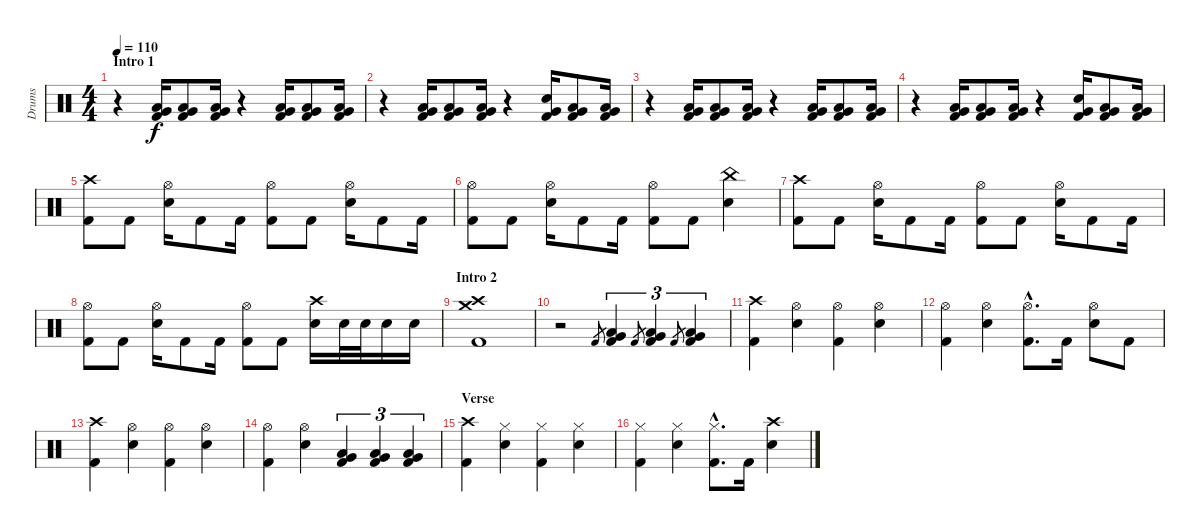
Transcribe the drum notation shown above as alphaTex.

\track ("Drums" "Drums") {instrument percussion}
\staff {score}
\articulation defaults
\ts (4 4)
\section ("" "Intro 1")
\tempo 110
\clef neutral
\ks c
r.4{dy f} ("Low Floor Tom (hit)" "Very Low Tom (hit)" "Kick (hit) 2").16 ("Low Floor Tom (hit)" "Very Low Tom (hit)" "Kick (hit) 2").8 ("Low Floor Tom (hit)" "Very Low Tom (hit)" "Kick (hit) 2").16 r.4 ("Low Floor Tom (hit)" "Very Low Tom (hit)" "Kick (hit) 2").16 ("Low Floor Tom (hit)" "Very Low Tom (hit)" "Kick (hit) 2").8 ("Low Floor Tom (hit)" "Very Low Tom (hit)" "Kick (hit) 2").16 |
r.4 ("Low Floor Tom (hit)" "Very Low Tom (hit)" "Kick (hit) 2").16 ("Low Floor Tom (hit)" "Very Low Tom (hit)" "Kick (hit) 2").8 ("Low Floor Tom (hit)" "Very Low Tom (hit)" "Kick (hit) 2").16 r.4 ("Electric Snare (hit)" "Very Low Tom (hit)" "Kick (hit) 2").16 ("Low Floor Tom (hit)" "Very Low Tom (hit)" "Kick (hit) 2").8 ("Low Floor Tom (hit)" "Very Low Tom (hit)" "Kick (hit) 2").16 |
r.4 ("Low Floor Tom (hit)" "Very Low Tom (hit)" "Kick (hit) 2").16 ("Low Floor Tom (hit)" "Very Low Tom (hit)" "Kick (hit) 2").8 ("Low Floor Tom (hit)" "Very Low Tom (hit)" "Kick (hit) 2").16 r.4 ("Low Floor Tom (hit)" "Very Low Tom (hit)" "Kick (hit) 2").16 ("Low Floor Tom (hit)" "Very Low Tom (hit)" "Kick (hit) 2").8 ("Low Floor Tom (hit)" "Very Low Tom (hit)" "Kick (hit) 2").16 |
r.4 ("Low Floor Tom (hit)" "Very Low Tom (hit)" "Kick (hit) 2").16 ("Low Floor Tom (hit)" "Very Low Tom (hit)" "Kick (hit) 2").8 ("Low Floor Tom (hit)" "Very Low Tom (hit)" "Kick (hit) 2").16 r.4 ("Electric Snare (hit)" "Very Low Tom (hit)" "Kick (hit) 2").16 ("Low Floor Tom (hit)" "Very Low Tom (hit)" "Kick (hit) 2").8 ("Low Floor Tom (hit)" "Very Low Tom (hit)" "Kick (hit) 2").16 |
("Crash high (hit)" "Kick (hit) 2").8 "Kick (hit) 2".8 ("Hi-Hat (open)" "Electric Snare (hit)").16 "Kick (hit) 2".8 "Kick (hit) 2".16 ("Hi-Hat (open)" "Kick (hit) 2").8 "Kick (hit) 2".8 ("Hi-Hat (open)" "Electric Snare (hit)").16 "Kick (hit) 2".8 "Kick (hit) 2".16 |
("Hi-Hat (open)" "Kick (hit) 2").8 "Kick (hit) 2".8 ("Hi-Hat (open)" "Electric Snare (hit)").16 "Kick (hit) 2".8 "Kick (hit) 2".16 ("Hi-Hat (open)" "Kick (hit) 2").8 "Kick (hit) 2".8 ("China (hit)" "Electric Snare (hit)").4 |
("Crash high (hit)" "Kick (hit) 2").8 "Kick (hit) 2".8 ("Hi-Hat (open)" "Electric Snare (hit)").16 "Kick (hit) 2".8 "Kick (hit) 2".16 ("Hi-Hat (open)" "Kick (hit) 2").8 "Kick (hit) 2".8 ("Hi-Hat (open)" "Electric Snare (hit)").16 "Kick (hit) 2".8 "Kick (hit) 2".16 |
("Hi-Hat (open)" "Kick (hit) 2").8 "Kick (hit) 2".8 ("Hi-Hat (open)" "Electric Snare (hit)").16 "Kick (hit) 2".8 "Kick (hit) 2".16 ("Hi-Hat (open)" "Kick (hit) 2").8 "Kick (hit) 2".8 ("Crash high (hit)" "Electric Snare (hit)").16 "Electric Snare (hit)".32 "Electric Snare (hit)".32 "Electric Snare (hit)".16 "Electric Snare (hit)".16 |
\section ("" "Intro 2")
("Crash high (hit)" "Crash medium (hit)" "Kick (hit) 2").1 |
r.2 "Kick (hit) 2".8{gr} ("Very Low Tom (hit)" "Low Floor Tom (hit)" "Kick (hit) 2").4{tu (3 2)} "Kick (hit) 2".8{gr} ("Very Low Tom (hit)" "Low Floor Tom (hit)" "Kick (hit) 2").4{tu (3 2)} "Kick (hit) 2".8{gr} ("Very Low Tom (hit)" "Low Floor Tom (hit)" "Kick (hit) 2").4{tu (3 2)} |
("Crash high (hit)" "Kick (hit) 2").4 ("Hi-Hat (open)" "Electric Snare (hit)").4 ("Hi-Hat (open)" "Kick (hit) 2").4 ("Hi-Hat (open)" "Electric Snare (hit)").4 |
("Hi-Hat (open)" "Kick (hit) 2").4 ("Hi-Hat (open)" "Electric Snare (hit)").4 ("Hi-Hat (open)"{hac} "Kick (hit) 2"{hac}).8{d} "Kick (hit) 2".16 ("Hi-Hat (open)" "Electric Snare (hit)").8 "Kick (hit) 2".8 |
("Crash high (hit)" "Kick (hit) 2").4 ("Hi-Hat (open)" "Electric Snare (hit)").4 ("Hi-Hat (open)" "Kick (hit) 2").4 ("Hi-Hat (open)" "Electric Snare (hit)").4 |
("Hi-Hat (open)" "Kick (hit) 2").4 ("Hi-Hat (open)" "Electric Snare (hit)").4 ("Low Floor Tom (hit)" "Very Low Tom (hit)" "Kick (hit) 2").4{tu (3 2)} ("Low Floor Tom (hit)" "Very Low Tom (hit)" "Kick (hit) 2").4{tu (3 2)} ("Low Floor Tom (hit)" "Very Low Tom (hit)" "Kick (hit) 2").4{tu (3 2)} |
\section ("" "Verse")
("Crash high (hit)" "Kick (hit) 2").4 ("Hi-Hat (closed)" "Electric Snare (hit)").4 ("Hi-Hat (closed)" "Kick (hit) 2").4 ("Hi-Hat (closed)" "Electric Snare (hit)").4 |
("Hi-Hat (closed)" "Kick (hit) 2").4 ("Hi-Hat (closed)" "Electric Snare (hit)").4 ("Hi-Hat (closed)"{hac} "Kick (hit) 2"{hac}).8{d} "Kick (hit) 2".16 ("Crash high (hit)" "Electric Snare (hit)").4
